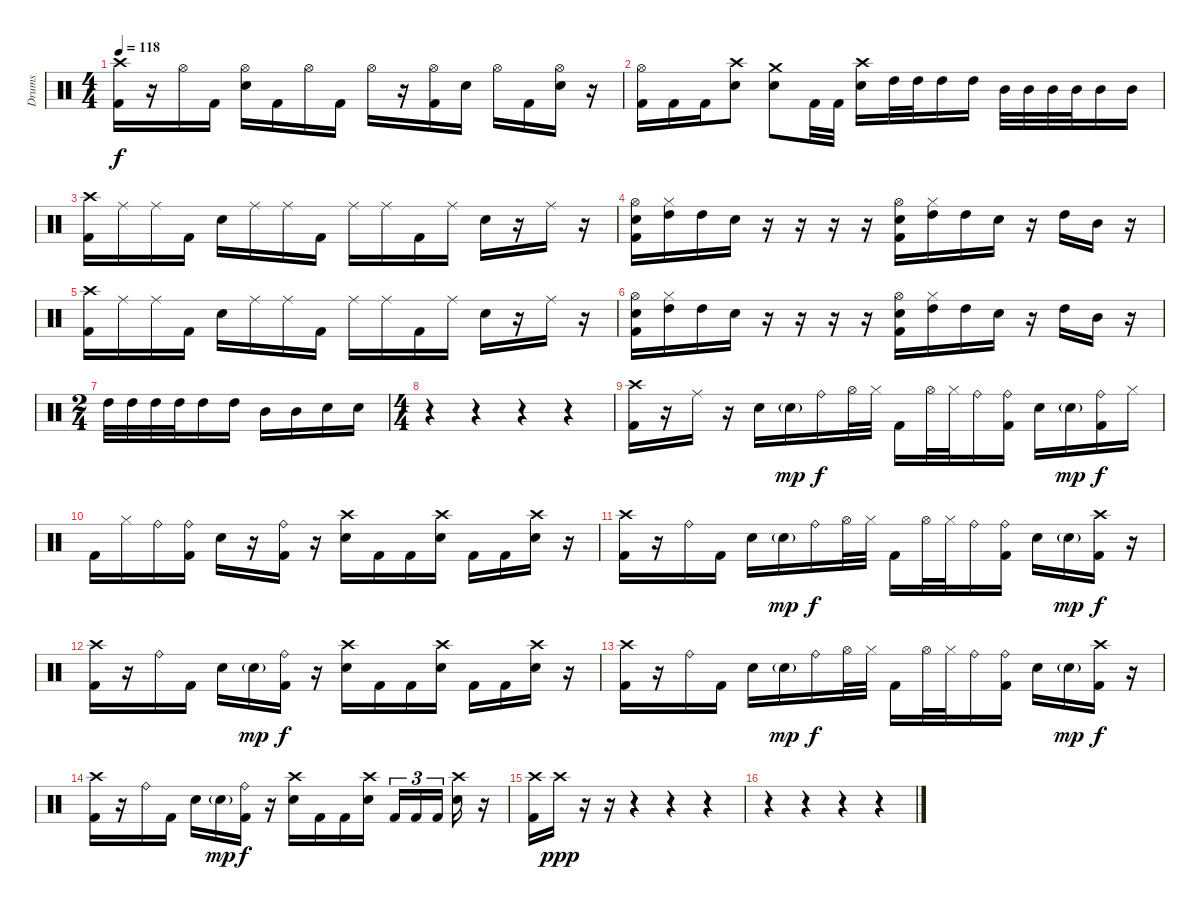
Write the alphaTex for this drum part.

\track ("Drums" "Drums") {instrument percussion}
\staff {score}
\articulation defaults
\ts (4 4)
\tempo 118
\clef neutral
\ks c
("Kick (hit) 2" "Crash high (hit)").16{dy f} r.16 "Hi-Hat (open)".16 "Kick (hit) 2".16 ("Snare (hit) 2" "Hi-Hat (open)").16 "Kick (hit) 2".16 "Hi-Hat (open)".16 "Kick (hit) 2".16 "Hi-Hat (open)".16 r.16 ("Kick (hit) 2" "Hi-Hat (open)").16 "Snare (hit) 2".16 "Hi-Hat (open)".16 "Kick (hit) 2".16 ("Snare (hit) 2" "Hi-Hat (open)").16 r.16 |
("Kick (hit) 2" "Hi-Hat (open)").16 "Kick (hit) 2".16 "Kick (hit) 2".16 ("Snare (hit) 2" "Crash high (hit)").8 ("Snare (hit) 2" "Crash medium (hit)").8 "Kick (hit) 2".32 "Kick (hit) 2".32 ("Snare (hit) 2" "Crash high (hit)").16 "High Tom (hit)".32 "High Tom (hit)".32 "High Tom (hit)".16 "High Tom (hit)".16 "Mid Tom (hit)".32 "Mid Tom (hit)".32 "Mid Tom (hit)".32 "Mid Tom (hit)".32 "Mid Tom (hit)".16 "Mid Tom (hit)".16 |
("Crash high (hit)" "Kick (hit) 2").16 "Ride (middle)".16 "Ride (middle)".16 "Kick (hit) 2".16 "Snare (hit) 2".16 "Ride (middle)".16 "Ride (middle)".16 "Kick (hit) 2".16 "Ride (middle)".16 "Ride (middle)".16 "Kick (hit) 2".16 "Ride (middle)".16 "Snare (hit) 2".16 r.16 "Ride (middle)".16 r.16 |
("Hi-Hat (open)" "Kick (hit) 2" "Snare (hit) 2").16 ("Hi-Hat (closed)" "High Tom (hit)").16 "High Tom (hit)".16 "Snare (hit) 2".16 r.16 r.16 r.16 r.16 ("Hi-Hat (open)" "Kick (hit) 2" "Snare (hit) 2").16 ("Hi-Hat (closed)" "High Tom (hit)").16 "High Tom (hit)".16 "Snare (hit) 2".16 r.16 "High Tom (hit)".16 "Mid Tom (hit)".16 r.16 |
("Crash high (hit)" "Kick (hit) 2").16 "Ride (middle)".16 "Ride (middle)".16 "Kick (hit) 2".16 "Snare (hit) 2".16 "Ride (middle)".16 "Ride (middle)".16 "Kick (hit) 2".16 "Ride (middle)".16 "Ride (middle)".16 "Kick (hit) 2".16 "Ride (middle)".16 "Snare (hit) 2".16 r.16 "Ride (middle)".16 r.16 |
("Hi-Hat (open)" "Kick (hit) 2" "Snare (hit) 2").16 ("Hi-Hat (closed)" "High Tom (hit)").16 "High Tom (hit)".16 "Snare (hit) 2".16 r.16 r.16 r.16 r.16 ("Hi-Hat (open)" "Kick (hit) 2" "Snare (hit) 2").16 ("Hi-Hat (closed)" "High Tom (hit)").16 "High Tom (hit)".16 "Snare (hit) 2".16 r.16 "High Tom (hit)".16 "Mid Tom (hit)".16 r.16 |
\ts (2 4)
"High Tom (hit)".32 "High Tom (hit)".32 "High Tom (hit)".32 "High Tom (hit)".32 "High Tom (hit)".16 "High Tom (hit)".16 "Mid Tom (hit)".16 "Mid Tom (hit)".16 "Snare (hit) 2".16 "Snare (hit) 2".16 |
\ts (4 4)
r.4 r.4 r.4 r.4 |
("Kick (hit) 2" "Crash high (hit)").16 r.16 "Ride (middle)".16 r.16 "Snare (hit) 2".16 "Snare (hit) 2"{g}.16{dy mp} "Ride (bell)".16{dy f} "Hi-Hat (open)".32 "Hi-Hat (closed)".32 "Kick (hit) 2".16 "Hi-Hat (open)".32 "Hi-Hat (closed)".32 "Ride (bell)".16 ("Kick (hit) 2" "Ride (bell)").16 "Snare (hit) 2".16 "Snare (hit) 2"{g}.16{dy mp} ("Kick (hit) 2" "Ride (bell)").16{dy f} "Hi-Hat (closed)".16 |
"Kick (hit) 2".16 "Hi-Hat (closed)".16 "Ride (bell)".16 ("Ride (bell)" "Kick (hit) 2").16 "Snare (hit) 2".16 r.16 ("Kick (hit) 2" "Ride (bell)").16 r.16 ("Snare (hit) 2" "Crash high (hit)").16 "Kick (hit) 2".16 "Kick (hit) 2".16 ("Snare (hit) 2" "Crash high (hit)").16 "Kick (hit) 2".16 "Kick (hit) 2".16 ("Snare (hit) 2" "Crash high (hit)").16 r.16 |
("Kick (hit) 2" "Crash high (hit)").16 r.16 "Ride (bell)".16 "Kick (hit) 2".16 "Snare (hit) 2".16 "Snare (hit) 2"{g}.16{dy mp} "Ride (bell)".16{dy f} "Hi-Hat (open)".32 "Hi-Hat (closed)".32 "Kick (hit) 2".16 "Hi-Hat (open)".32 "Hi-Hat (closed)".32 "Ride (bell)".16 ("Kick (hit) 2" "Ride (bell)").16 "Snare (hit) 2".16 "Snare (hit) 2"{g}.16{dy mp} ("Kick (hit) 2" "Crash high (hit)").16{dy f} r.16 |
("Kick (hit) 2" "Crash high (hit)").16 r.16 "Ride (bell)".16 "Kick (hit) 2".16 "Snare (hit) 2".16 "Snare (hit) 2"{g}.16{dy mp} ("Kick (hit) 2" "Ride (bell)").16{dy f} r.16 ("Snare (hit) 2" "Crash high (hit)").16 "Kick (hit) 2".16 "Kick (hit) 2".16 ("Snare (hit) 2" "Crash high (hit)").16 "Kick (hit) 2".16 "Kick (hit) 2".16 ("Snare (hit) 2" "Crash high (hit)").16 r.16 |
("Kick (hit) 2" "Crash high (hit)").16 r.16 "Ride (bell)".16 "Kick (hit) 2".16 "Snare (hit) 2".16 "Snare (hit) 2"{g}.16{dy mp} "Ride (bell)".16{dy f} "Hi-Hat (open)".32 "Hi-Hat (closed)".32 "Kick (hit) 2".16 "Hi-Hat (open)".32 "Hi-Hat (closed)".32 "Ride (bell)".16 ("Kick (hit) 2" "Ride (bell)").16 "Snare (hit) 2".16 "Snare (hit) 2"{g}.16{dy mp} ("Kick (hit) 2" "Crash high (hit)").16{dy f} r.16 |
("Kick (hit) 2" "Crash high (hit)").16 r.16 "Ride (bell)".16 "Kick (hit) 2".16 "Snare (hit) 2".16 "Snare (hit) 2"{g}.16{dy mp} ("Kick (hit) 2" "Ride (bell)").16{dy f} r.16 ("Snare (hit) 2" "Crash high (hit)").16 "Kick (hit) 2".16 "Kick (hit) 2".16 ("Snare (hit) 2" "Crash high (hit)").16 "Kick (hit) 2".16{tu (3 2)} "Kick (hit) 2".16{tu (3 2)} "Kick (hit) 2".16{tu (3 2) beam splitsecondary} ("Snare (hit) 2" "Crash high (hit)").16 r.16 |
("Kick (hit) 2" "Crash high (hit)").16 "Crash high (hit)".16{dy ppp} r.16 r.16 r.4 r.4 r.4 |
r.4 r.4 r.4 r.4
